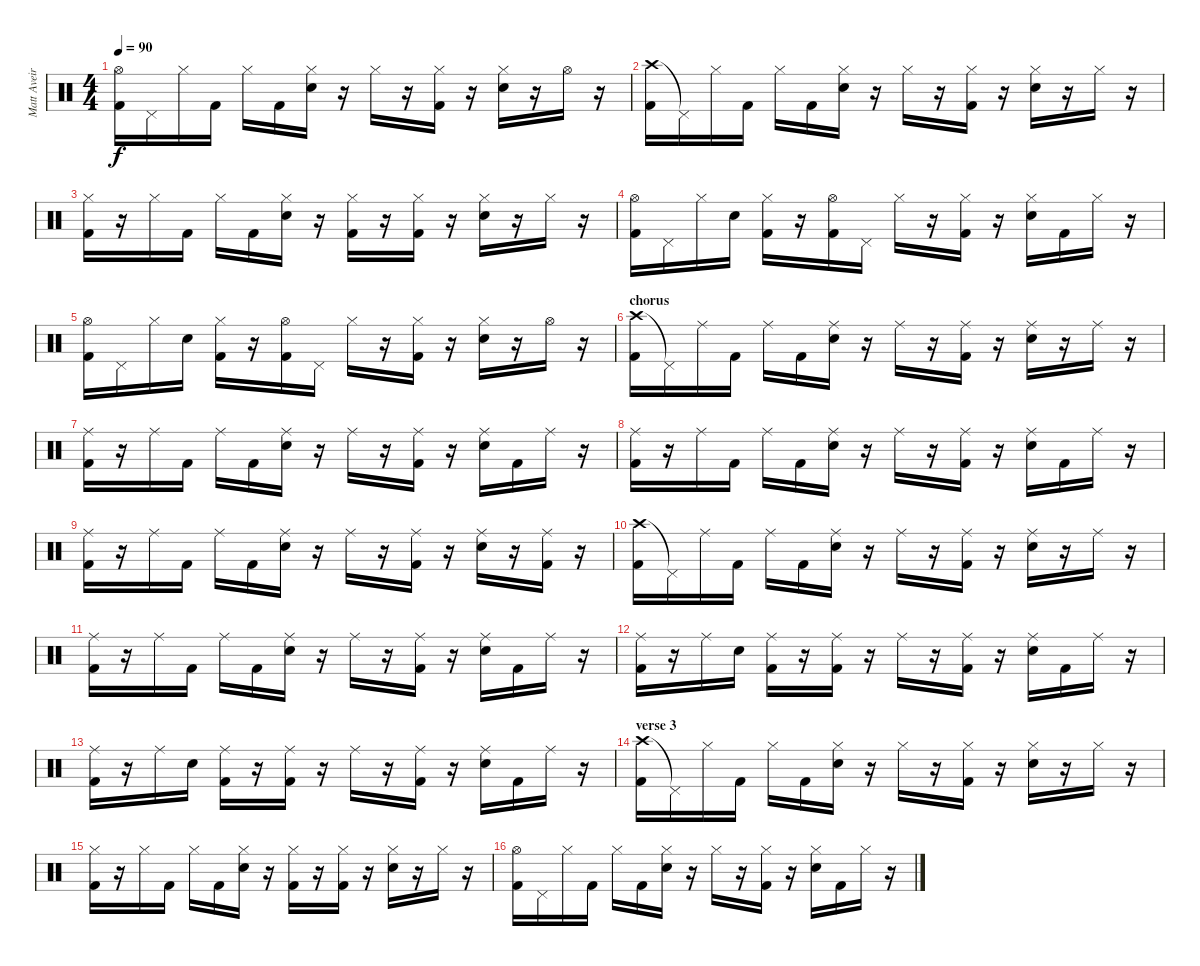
\track ("Matt Aveiro-drums" "Matt Aveir") {instrument percussion}
\staff {score}
\articulation defaults
\ts (4 4)
\tempo 90
\clef neutral
\ks c
("Hi-Hat (open)" "Kick (hit) 2").16{dy f} "Pedal Hi-Hat (hit)".16 "Hi-Hat (closed)".16 "Kick (hit) 2".16 "Hi-Hat (closed)".16 "Kick (hit) 2".16 ("Hi-Hat (closed)" "Snare (hit) 2").16 r.16 "Hi-Hat (closed)".16 r.16 ("Hi-Hat (closed)" "Kick (hit) 2").16 r.16 ("Hi-Hat (closed)" "Snare (hit) 2").16 r.16 "Hi-Hat (open)".16 r.16 |
("Crash high (hit)" "Kick (hit) 2").16 "Pedal Hi-Hat (hit)"{t}.16 "Hi-Hat (closed)".16 "Kick (hit) 2".16 "Hi-Hat (closed)".16 "Kick (hit) 2".16 ("Hi-Hat (closed)" "Snare (hit) 2").16 r.16 "Hi-Hat (closed)".16 r.16 ("Hi-Hat (closed)" "Kick (hit) 2").16 r.16 ("Hi-Hat (closed)" "Snare (hit) 2").16 r.16 "Hi-Hat (closed)".16 r.16 |
("Hi-Hat (closed)" "Kick (hit) 2").16 r.16 "Hi-Hat (closed)".16 "Kick (hit) 2".16 "Hi-Hat (closed)".16 "Kick (hit) 2".16 ("Hi-Hat (closed)" "Snare (hit) 2").16 r.16 ("Hi-Hat (closed)" "Kick (hit) 2").16 r.16 ("Hi-Hat (closed)" "Kick (hit) 2").16 r.16 ("Hi-Hat (closed)" "Snare (hit) 2").16 r.16 "Hi-Hat (closed)".16 r.16 |
("Hi-Hat (open)" "Kick (hit) 2").16 "Pedal Hi-Hat (hit)".16 "Hi-Hat (closed)".16 "Snare (hit) 2".16 ("Hi-Hat (closed)" "Kick (hit) 2").16 r.16 ("Hi-Hat (open)" "Kick (hit) 2").16 "Pedal Hi-Hat (hit)".16 "Hi-Hat (closed)".16 r.16 ("Hi-Hat (closed)" "Kick (hit) 2").16 r.16 ("Hi-Hat (closed)" "Snare (hit) 2").16 "Kick (hit) 2".16 "Hi-Hat (closed)".16 r.16 |
("Hi-Hat (open)" "Kick (hit) 2").16 "Pedal Hi-Hat (hit)".16 "Hi-Hat (closed)".16 "Snare (hit) 2".16 ("Hi-Hat (closed)" "Kick (hit) 2").16 r.16 ("Hi-Hat (open)" "Kick (hit) 2").16 "Pedal Hi-Hat (hit)".16 "Hi-Hat (closed)".16 r.16 ("Hi-Hat (closed)" "Kick (hit) 2").16 r.16 ("Hi-Hat (closed)" "Snare (hit) 2").16 r.16 "Hi-Hat (open)".16 r.16 |
\section ("" "chorus")
("Crash high (hit)" "Kick (hit) 2").16 "Pedal Hi-Hat (hit)"{t}.16 "Ride (middle)".16 "Kick (hit) 2".16 "Ride (middle)".16 "Kick (hit) 2".16 ("Ride (middle)" "Snare (hit) 2").16 r.16 "Ride (middle)".16 r.16 ("Ride (middle)" "Kick (hit) 2").16 r.16 ("Ride (middle)" "Snare (hit) 2").16 r.16 "Ride (middle)".16 r.16 |
("Ride (middle)" "Kick (hit) 2").16 r.16 "Ride (middle)".16 "Kick (hit) 2".16 "Ride (middle)".16 "Kick (hit) 2".16 ("Ride (middle)" "Snare (hit) 2").16 r.16 "Ride (middle)".16 r.16 ("Ride (middle)" "Kick (hit) 2").16 r.16 ("Ride (middle)" "Snare (hit) 2").16 "Kick (hit) 2".16 "Ride (middle)".16 r.16 |
("Ride (middle)" "Kick (hit) 2").16 r.16 "Ride (middle)".16 "Kick (hit) 2".16 "Ride (middle)".16 "Kick (hit) 2".16 ("Ride (middle)" "Snare (hit) 2").16 r.16 "Ride (middle)".16 r.16 ("Ride (middle)" "Kick (hit) 2").16 r.16 ("Ride (middle)" "Snare (hit) 2").16 "Kick (hit) 2".16 "Ride (middle)".16 r.16 |
("Ride (middle)" "Kick (hit) 2").16 r.16 "Ride (middle)".16 "Kick (hit) 2".16 "Ride (middle)".16 "Kick (hit) 2".16 ("Ride (middle)" "Snare (hit) 2").16 r.16 "Ride (middle)".16 r.16 ("Ride (middle)" "Kick (hit) 2").16 r.16 ("Ride (middle)" "Snare (hit) 2").16 r.16 ("Ride (middle)" "Kick (hit) 2").16 r.16 |
("Crash high (hit)" "Kick (hit) 2").16 "Pedal Hi-Hat (hit)"{t}.16 "Ride (middle)".16 "Kick (hit) 2".16 "Ride (middle)".16 "Kick (hit) 2".16 ("Ride (middle)" "Snare (hit) 2").16 r.16 "Ride (middle)".16 r.16 ("Ride (middle)" "Kick (hit) 2").16 r.16 ("Ride (middle)" "Snare (hit) 2").16 r.16 "Ride (middle)".16 r.16 |
("Ride (middle)" "Kick (hit) 2").16 r.16 "Ride (middle)".16 "Kick (hit) 2".16 "Ride (middle)".16 "Kick (hit) 2".16 ("Ride (middle)" "Snare (hit) 2").16 r.16 "Ride (middle)".16 r.16 ("Ride (middle)" "Kick (hit) 2").16 r.16 ("Ride (middle)" "Snare (hit) 2").16 "Kick (hit) 2".16 "Ride (middle)".16 r.16 |
("Ride (middle)" "Kick (hit) 2").16 r.16 "Ride (middle)".16 "Snare (hit) 2".16 ("Ride (middle)" "Kick (hit) 2").16 r.16 ("Ride (middle)" "Kick (hit) 2").16 r.16 "Ride (middle)".16 r.16 ("Ride (middle)" "Kick (hit) 2").16 r.16 ("Ride (middle)" "Snare (hit) 2").16 "Kick (hit) 2".16 "Ride (middle)".16 r.16 |
("Ride (middle)" "Kick (hit) 2").16 r.16 "Ride (middle)".16 "Snare (hit) 2".16 ("Ride (middle)" "Kick (hit) 2").16 r.16 ("Ride (middle)" "Kick (hit) 2").16 r.16 "Ride (middle)".16 r.16 ("Ride (middle)" "Kick (hit) 2").16 r.16 ("Ride (middle)" "Snare (hit) 2").16 "Kick (hit) 2".16 "Ride (middle)".16 r.16 |
\section ("" "verse 3")
("Crash high (hit)" "Kick (hit) 2").16 "Pedal Hi-Hat (hit)"{t}.16 "Hi-Hat (closed)".16 "Kick (hit) 2".16 "Hi-Hat (closed)".16 "Kick (hit) 2".16 ("Hi-Hat (closed)" "Snare (hit) 2").16 r.16 "Hi-Hat (closed)".16 r.16 ("Hi-Hat (closed)" "Kick (hit) 2").16 r.16 ("Hi-Hat (closed)" "Snare (hit) 2").16 r.16 "Hi-Hat (closed)".16 r.16 |
("Hi-Hat (closed)" "Kick (hit) 2").16 r.16 "Hi-Hat (closed)".16 "Kick (hit) 2".16 "Hi-Hat (closed)".16 "Kick (hit) 2".16 ("Hi-Hat (closed)" "Snare (hit) 2").16 r.16 ("Hi-Hat (closed)" "Kick (hit) 2").16 r.16 ("Hi-Hat (closed)" "Kick (hit) 2").16 r.16 ("Hi-Hat (closed)" "Snare (hit) 2").16 r.16 "Hi-Hat (closed)".16 r.16 |
("Hi-Hat (open)" "Kick (hit) 2").16 "Pedal Hi-Hat (hit)".16 "Hi-Hat (closed)".16 "Kick (hit) 2".16 "Hi-Hat (closed)".16 "Kick (hit) 2".16 ("Hi-Hat (closed)" "Snare (hit) 2").16 r.16 "Hi-Hat (closed)".16 r.16 ("Hi-Hat (closed)" "Kick (hit) 2").16 r.16 ("Hi-Hat (closed)" "Snare (hit) 2").16 "Kick (hit) 2".16 "Hi-Hat (closed)".16 r.16
